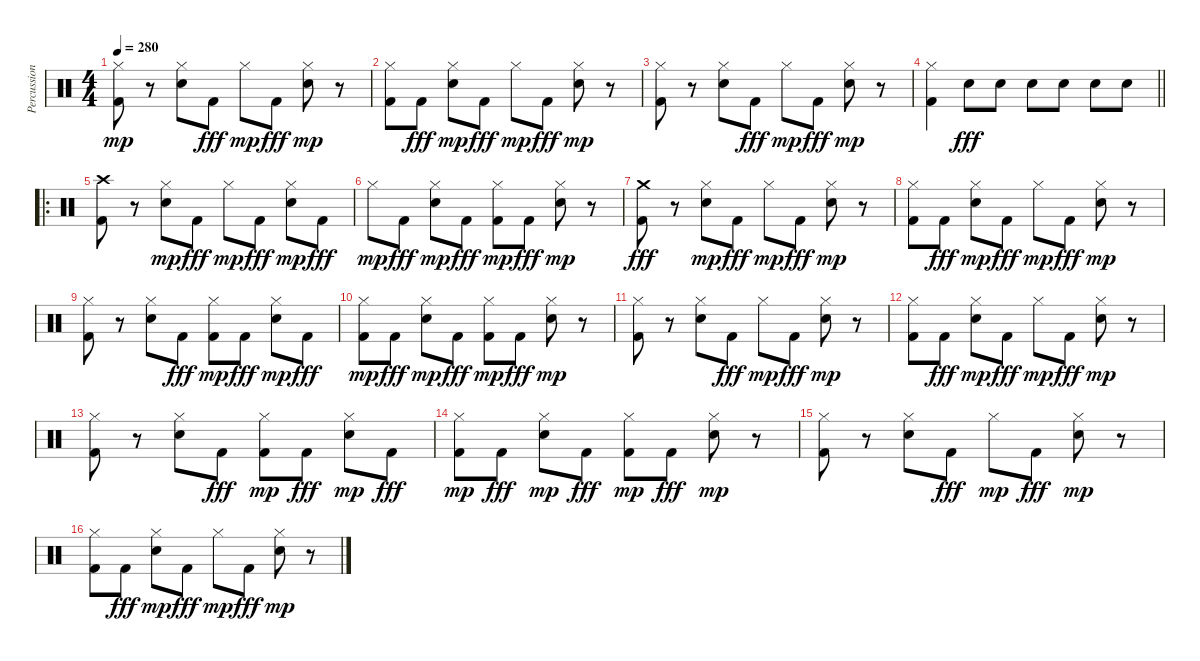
\track ("Percussion" "Percussion") {instrument percussion}
\staff {score}
\articulation defaults
\ts (4 4)
\tempo 280
\clef neutral
\ks c
("Kick (hit) 2" "Hi-Hat (closed)").8{dy mp} r.8 ("Electric Snare (hit)" "Hi-Hat (closed)").8 "Kick (hit) 2".8{dy fff} "Hi-Hat (closed)".8{dy mp} "Kick (hit) 2".8{dy fff} ("Electric Snare (hit)" "Hi-Hat (closed)").8{dy mp} r.8 |
("Kick (hit) 2" "Hi-Hat (closed)").8 "Kick (hit) 2".8{dy fff} ("Electric Snare (hit)" "Hi-Hat (closed)").8{dy mp} "Kick (hit) 2".8{dy fff} "Hi-Hat (closed)".8{dy mp} "Kick (hit) 2".8{dy fff} ("Electric Snare (hit)" "Hi-Hat (closed)").8{dy mp} r.8 |
("Kick (hit) 2" "Hi-Hat (closed)").8 r.8 ("Electric Snare (hit)" "Hi-Hat (closed)").8 "Kick (hit) 2".8{dy fff} "Hi-Hat (closed)".8{dy mp} "Kick (hit) 2".8{dy fff} ("Electric Snare (hit)" "Hi-Hat (closed)").8{dy mp} r.8 |
\barLineRight lightlight
("Kick (hit) 2" "Hi-Hat (closed)").4 "Electric Snare (hit)".8{dy fff} "Electric Snare (hit)".8 "Electric Snare (hit)".8 "Electric Snare (hit)".8 "Electric Snare (hit)".8 "Electric Snare (hit)".8 |
\ro
("Kick (hit) 2" "Crash high (hit)").8 r.8 ("Electric Snare (hit)" "Hi-Hat (closed)").8{dy mp} "Kick (hit) 2".8{dy fff} "Hi-Hat (closed)".8{dy mp} "Kick (hit) 2".8{dy fff} ("Electric Snare (hit)" "Hi-Hat (closed)").8{dy mp} "Kick (hit) 2".8{dy fff} |
"Hi-Hat (closed)".8{dy mp} "Kick (hit) 2".8{dy fff} ("Electric Snare (hit)" "Hi-Hat (closed)").8{dy mp} "Kick (hit) 2".8{dy fff} ("Kick (hit) 2" "Hi-Hat (closed)").8{dy mp} "Kick (hit) 2".8{dy fff} ("Electric Snare (hit)" "Hi-Hat (closed)").8{dy mp} r.8 |
("Kick (hit) 2" "Crash medium (hit)").8{dy fff} r.8 ("Electric Snare (hit)" "Hi-Hat (closed)").8{dy mp} "Kick (hit) 2".8{dy fff} "Hi-Hat (closed)".8{dy mp} "Kick (hit) 2".8{dy fff} ("Electric Snare (hit)" "Hi-Hat (closed)").8{dy mp} r.8 |
("Kick (hit) 2" "Hi-Hat (closed)").8 "Kick (hit) 2".8{dy fff} ("Electric Snare (hit)" "Hi-Hat (closed)").8{dy mp} "Kick (hit) 2".8{dy fff} "Hi-Hat (closed)".8{dy mp} "Kick (hit) 2".8{dy fff} ("Electric Snare (hit)" "Hi-Hat (closed)").8{dy mp} r.8 |
("Kick (hit) 2" "Hi-Hat (closed)").8 r.8 ("Electric Snare (hit)" "Hi-Hat (closed)").8 "Kick (hit) 2".8{dy fff} ("Kick (hit) 2" "Hi-Hat (closed)").8{dy mp} "Kick (hit) 2".8{dy fff} ("Electric Snare (hit)" "Hi-Hat (closed)").8{dy mp} "Kick (hit) 2".8{dy fff} |
("Kick (hit) 2" "Hi-Hat (closed)").8{dy mp} "Kick (hit) 2".8{dy fff} ("Electric Snare (hit)" "Hi-Hat (closed)").8{dy mp} "Kick (hit) 2".8{dy fff} ("Kick (hit) 2" "Hi-Hat (closed)").8{dy mp} "Kick (hit) 2".8{dy fff} ("Electric Snare (hit)" "Hi-Hat (closed)").8{dy mp} r.8 |
("Kick (hit) 2" "Hi-Hat (closed)").8 r.8 ("Electric Snare (hit)" "Hi-Hat (closed)").8 "Kick (hit) 2".8{dy fff} "Hi-Hat (closed)".8{dy mp} "Kick (hit) 2".8{dy fff} ("Electric Snare (hit)" "Hi-Hat (closed)").8{dy mp} r.8 |
("Kick (hit) 2" "Hi-Hat (closed)").8 "Kick (hit) 2".8{dy fff} ("Electric Snare (hit)" "Hi-Hat (closed)").8{dy mp} "Kick (hit) 2".8{dy fff} "Hi-Hat (closed)".8{dy mp} "Kick (hit) 2".8{dy fff} ("Electric Snare (hit)" "Hi-Hat (closed)").8{dy mp} r.8 |
("Kick (hit) 2" "Hi-Hat (closed)").8 r.8 ("Electric Snare (hit)" "Hi-Hat (closed)").8 "Kick (hit) 2".8{dy fff} ("Kick (hit) 2" "Hi-Hat (closed)").8{dy mp} "Kick (hit) 2".8{dy fff} ("Electric Snare (hit)" "Hi-Hat (closed)").8{dy mp} "Kick (hit) 2".8{dy fff} |
("Kick (hit) 2" "Hi-Hat (closed)").8{dy mp} "Kick (hit) 2".8{dy fff} ("Electric Snare (hit)" "Hi-Hat (closed)").8{dy mp} "Kick (hit) 2".8{dy fff} ("Kick (hit) 2" "Hi-Hat (closed)").8{dy mp} "Kick (hit) 2".8{dy fff} ("Electric Snare (hit)" "Hi-Hat (closed)").8{dy mp} r.8 |
("Kick (hit) 2" "Hi-Hat (closed)").8 r.8 ("Electric Snare (hit)" "Hi-Hat (closed)").8 "Kick (hit) 2".8{dy fff} "Hi-Hat (closed)".8{dy mp} "Kick (hit) 2".8{dy fff} ("Electric Snare (hit)" "Hi-Hat (closed)").8{dy mp} r.8 |
("Kick (hit) 2" "Hi-Hat (closed)").8 "Kick (hit) 2".8{dy fff} ("Electric Snare (hit)" "Hi-Hat (closed)").8{dy mp} "Kick (hit) 2".8{dy fff} "Hi-Hat (closed)".8{dy mp} "Kick (hit) 2".8{dy fff} ("Electric Snare (hit)" "Hi-Hat (closed)").8{dy mp} r.8
